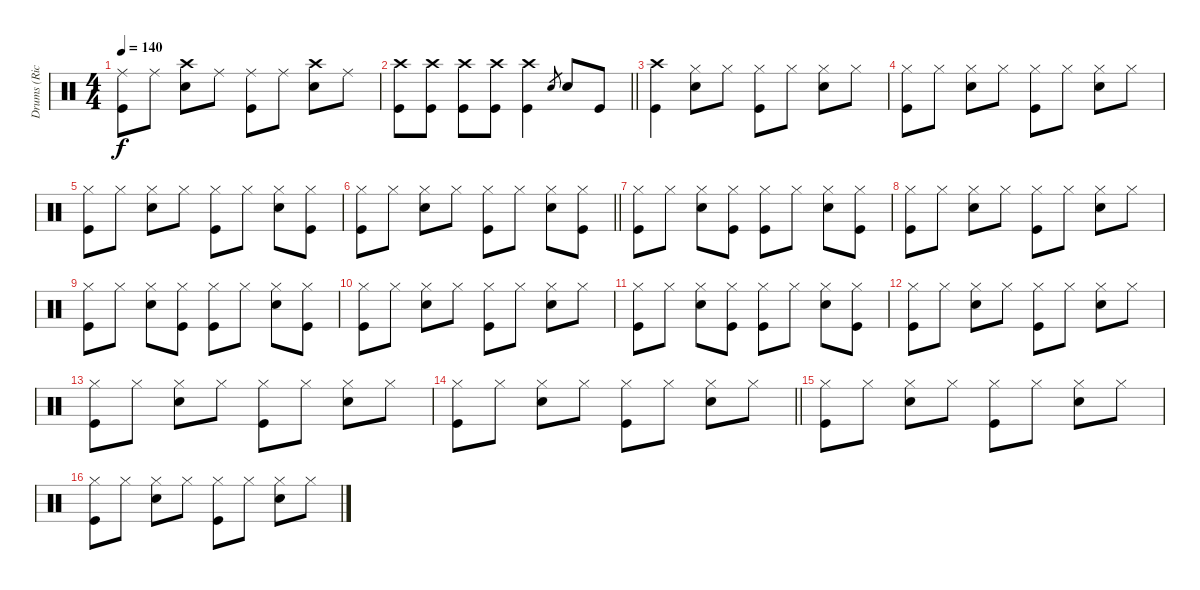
\track ("Drums (Rick)" "Drums (Ric") {instrument percussion}
\staff {score}
\articulation defaults
\ts (4 4)
\tempo 140
\clef neutral
\ks aminor
("Ride (middle)" "Kick (hit)").8{dy f} "Ride (middle)".8 ("Crash high (hit)" "Snare (hit) 2").8 "Ride (middle)".8 ("Ride (middle)" "Kick (hit)").8 "Ride (middle)".8 ("Crash high (hit)" "Snare (hit) 2").8 "Ride (middle)".8 |
\barLineRight lightlight
("Crash high (hit)" "Kick (hit)").8 ("Crash high (hit)" "Kick (hit)").8 ("Crash high (hit)" "Kick (hit)").8 ("Crash high (hit)" "Kick (hit)").8 ("Crash high (hit)" "Kick (hit)").4 "Snare (hit) 2".8{gr} "Snare (hit) 2".8 "Kick (hit)".8 |
("Crash high (hit)" "Kick (hit)").4 ("Hi-Hat (closed)" "Snare (hit) 2").8 "Hi-Hat (closed)".8 ("Hi-Hat (closed)" "Kick (hit)").8 "Hi-Hat (closed)".8 ("Hi-Hat (closed)" "Snare (hit) 2").8 "Hi-Hat (closed)".8 |
("Hi-Hat (closed)" "Kick (hit)").8 "Hi-Hat (closed)".8 ("Hi-Hat (closed)" "Snare (hit) 2").8 "Hi-Hat (closed)".8 ("Hi-Hat (closed)" "Kick (hit)").8 "Hi-Hat (closed)".8 ("Hi-Hat (closed)" "Snare (hit) 2").8 "Hi-Hat (closed)".8 |
("Hi-Hat (closed)" "Kick (hit)").8 "Hi-Hat (closed)".8 ("Hi-Hat (closed)" "Snare (hit) 2").8 "Hi-Hat (closed)".8 ("Hi-Hat (closed)" "Kick (hit)").8 "Hi-Hat (closed)".8 ("Hi-Hat (closed)" "Snare (hit) 2").8 ("Hi-Hat (closed)" "Kick (hit)").8 |
\barLineRight lightlight
("Hi-Hat (closed)" "Kick (hit)").8 "Hi-Hat (closed)".8 ("Hi-Hat (closed)" "Snare (hit) 2").8 "Hi-Hat (closed)".8 ("Hi-Hat (closed)" "Kick (hit)").8 "Hi-Hat (closed)".8 ("Hi-Hat (closed)" "Snare (hit) 2").8 ("Hi-Hat (closed)" "Kick (hit)").8 |
("Hi-Hat (closed)" "Kick (hit)").8 "Hi-Hat (closed)".8 ("Hi-Hat (closed)" "Snare (hit) 2").8 ("Hi-Hat (closed)" "Kick (hit)").8 ("Hi-Hat (closed)" "Kick (hit)").8 "Hi-Hat (closed)".8 ("Hi-Hat (closed)" "Snare (hit) 2").8 ("Hi-Hat (closed)" "Kick (hit)").8 |
("Hi-Hat (closed)" "Kick (hit)").8 "Hi-Hat (closed)".8 ("Hi-Hat (closed)" "Snare (hit) 2").8 "Hi-Hat (closed)".8 ("Hi-Hat (closed)" "Kick (hit)").8 "Hi-Hat (closed)".8 ("Hi-Hat (closed)" "Snare (hit) 2").8 "Hi-Hat (closed)".8 |
("Hi-Hat (closed)" "Kick (hit)").8 "Hi-Hat (closed)".8 ("Hi-Hat (closed)" "Snare (hit) 2").8 ("Hi-Hat (closed)" "Kick (hit)").8 ("Hi-Hat (closed)" "Kick (hit)").8 "Hi-Hat (closed)".8 ("Hi-Hat (closed)" "Snare (hit) 2").8 ("Hi-Hat (closed)" "Kick (hit)").8 |
("Hi-Hat (closed)" "Kick (hit)").8 "Hi-Hat (closed)".8 ("Hi-Hat (closed)" "Snare (hit) 2").8 "Hi-Hat (closed)".8 ("Hi-Hat (closed)" "Kick (hit)").8 "Hi-Hat (closed)".8 ("Hi-Hat (closed)" "Snare (hit) 2").8 "Hi-Hat (closed)".8 |
("Hi-Hat (closed)" "Kick (hit)").8 "Hi-Hat (closed)".8 ("Hi-Hat (closed)" "Snare (hit) 2").8 ("Hi-Hat (closed)" "Kick (hit)").8 ("Hi-Hat (closed)" "Kick (hit)").8 "Hi-Hat (closed)".8 ("Hi-Hat (closed)" "Snare (hit) 2").8 ("Hi-Hat (closed)" "Kick (hit)").8 |
("Hi-Hat (closed)" "Kick (hit)").8 "Hi-Hat (closed)".8 ("Hi-Hat (closed)" "Snare (hit) 2").8 "Hi-Hat (closed)".8 ("Hi-Hat (closed)" "Kick (hit)").8 "Hi-Hat (closed)".8 ("Hi-Hat (closed)" "Snare (hit) 2").8 "Hi-Hat (closed)".8 |
("Hi-Hat (closed)" "Kick (hit)").8 "Hi-Hat (closed)".8 ("Hi-Hat (closed)" "Snare (hit) 2").8 "Hi-Hat (closed)".8 ("Hi-Hat (closed)" "Kick (hit)").8 "Hi-Hat (closed)".8 ("Hi-Hat (closed)" "Snare (hit) 2").8 "Hi-Hat (closed)".8 |
\barLineRight lightlight
("Hi-Hat (closed)" "Kick (hit)").8 "Hi-Hat (closed)".8 ("Hi-Hat (closed)" "Snare (hit) 2").8 "Hi-Hat (closed)".8 ("Hi-Hat (closed)" "Kick (hit)").8 "Hi-Hat (closed)".8 ("Hi-Hat (closed)" "Snare (hit) 2").8 "Hi-Hat (closed)".8 |
("Hi-Hat (closed)" "Kick (hit)").8 "Hi-Hat (closed)".8 ("Hi-Hat (closed)" "Snare (hit) 2").8 "Hi-Hat (closed)".8 ("Hi-Hat (closed)" "Kick (hit)").8 "Hi-Hat (closed)".8 ("Hi-Hat (closed)" "Snare (hit) 2").8 "Hi-Hat (closed)".8 |
("Hi-Hat (closed)" "Kick (hit)").8 "Hi-Hat (closed)".8 ("Hi-Hat (closed)" "Snare (hit) 2").8 "Hi-Hat (closed)".8 ("Hi-Hat (closed)" "Kick (hit)").8 "Hi-Hat (closed)".8 ("Hi-Hat (closed)" "Snare (hit) 2").8 "Hi-Hat (closed)".8
